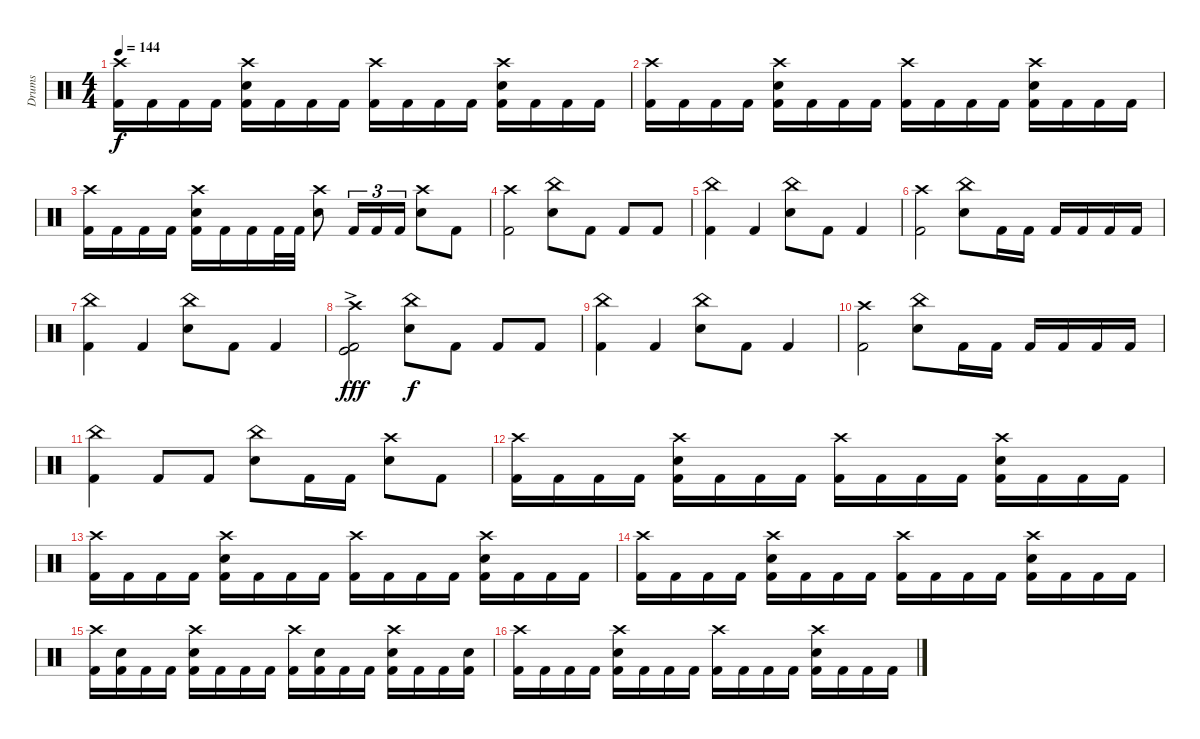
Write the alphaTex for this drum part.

\track ("Drums" "Drums") {instrument percussion}
\staff {score}
\articulation defaults
\ts (4 4)
\tempo 144
\clef neutral
\ks c
("Crash high (hit)" "Kick (hit) 2").16{dy f} "Kick (hit) 2".16 "Kick (hit) 2".16 "Kick (hit) 2".16 ("Crash high (hit)" "Snare (hit) 2" "Kick (hit) 2").16 "Kick (hit) 2".16 "Kick (hit) 2".16 "Kick (hit) 2".16 ("Crash high (hit)" "Kick (hit) 2").16 "Kick (hit) 2".16 "Kick (hit) 2".16 "Kick (hit) 2".16 ("Crash high (hit)" "Snare (hit) 2" "Kick (hit) 2").16 "Kick (hit) 2".16 "Kick (hit) 2".16 "Kick (hit) 2".16 |
("Crash high (hit)" "Kick (hit) 2").16 "Kick (hit) 2".16 "Kick (hit) 2".16 "Kick (hit) 2".16 ("Crash high (hit)" "Snare (hit) 2" "Kick (hit) 2").16 "Kick (hit) 2".16 "Kick (hit) 2".16 "Kick (hit) 2".16 ("Crash high (hit)" "Kick (hit) 2").16 "Kick (hit) 2".16 "Kick (hit) 2".16 "Kick (hit) 2".16 ("Crash high (hit)" "Snare (hit) 2" "Kick (hit) 2").16 "Kick (hit) 2".16 "Kick (hit) 2".16 "Kick (hit) 2".16 |
("Crash high (hit)" "Kick (hit) 2").16 "Kick (hit) 2".16 "Kick (hit) 2".16 "Kick (hit) 2".16 ("Crash high (hit)" "Snare (hit) 2" "Kick (hit) 2").16 "Kick (hit) 2".16 "Kick (hit) 2".16 "Kick (hit) 2".32 "Kick (hit) 2".32 ("Crash high (hit)" "Snare (hit) 2").8 "Kick (hit) 2".16{tu (3 2)} "Kick (hit) 2".16{tu (3 2)} "Kick (hit) 2".16{tu (3 2)} ("Crash high (hit)" "Snare (hit) 2").8 "Kick (hit) 2".8 |
("Crash high (hit)" "Kick (hit) 2").2 ("China (hit)" "Snare (hit) 2").8 "Kick (hit) 2".8 "Kick (hit) 2".8 "Kick (hit) 2".8 |
("Kick (hit) 2" "China (hit)").4 "Kick (hit) 2".4 ("China (hit)" "Snare (hit) 2").8 "Kick (hit) 2".8 "Kick (hit) 2".4 |
("Crash high (hit)" "Kick (hit) 2").2 ("China (hit)" "Snare (hit) 2").8 "Kick (hit) 2".16 "Kick (hit) 2".16 "Kick (hit) 2".16 "Kick (hit) 2".16 "Kick (hit) 2".16 "Kick (hit) 2".16 |
("Kick (hit) 2" "China (hit)").4 "Kick (hit) 2".4 ("China (hit)" "Snare (hit) 2").8 "Kick (hit) 2".8 "Kick (hit) 2".4 |
("Kick (hit)"{ac} "Crash high (hit)" "Kick (hit) 2").2{dy fff} ("China (hit)" "Snare (hit) 2").8{dy f} "Kick (hit) 2".8 "Kick (hit) 2".8 "Kick (hit) 2".8 |
("Kick (hit) 2" "China (hit)").4 "Kick (hit) 2".4 ("China (hit)" "Snare (hit) 2").8 "Kick (hit) 2".8 "Kick (hit) 2".4 |
("Crash high (hit)" "Kick (hit) 2").2 ("China (hit)" "Snare (hit) 2").8 "Kick (hit) 2".16 "Kick (hit) 2".16 "Kick (hit) 2".16 "Kick (hit) 2".16 "Kick (hit) 2".16 "Kick (hit) 2".16 |
("Kick (hit) 2" "China (hit)").4 "Kick (hit) 2".8 "Kick (hit) 2".8 ("China (hit)" "Snare (hit) 2").8 "Kick (hit) 2".16 "Kick (hit) 2".16 ("Crash high (hit)" "Snare (hit) 2").8 "Kick (hit) 2".8 |
("Crash high (hit)" "Kick (hit) 2").16 "Kick (hit) 2".16 "Kick (hit) 2".16 "Kick (hit) 2".16 ("Crash high (hit)" "Snare (hit) 2" "Kick (hit) 2").16 "Kick (hit) 2".16 "Kick (hit) 2".16 "Kick (hit) 2".16 ("Crash high (hit)" "Kick (hit) 2").16 "Kick (hit) 2".16 "Kick (hit) 2".16 "Kick (hit) 2".16 ("Crash high (hit)" "Snare (hit) 2" "Kick (hit) 2").16 "Kick (hit) 2".16 "Kick (hit) 2".16 "Kick (hit) 2".16 |
("Crash high (hit)" "Kick (hit) 2").16 "Kick (hit) 2".16 "Kick (hit) 2".16 "Kick (hit) 2".16 ("Crash high (hit)" "Snare (hit) 2" "Kick (hit) 2").16 "Kick (hit) 2".16 "Kick (hit) 2".16 "Kick (hit) 2".16 ("Crash high (hit)" "Kick (hit) 2").16 "Kick (hit) 2".16 "Kick (hit) 2".16 "Kick (hit) 2".16 ("Crash high (hit)" "Snare (hit) 2" "Kick (hit) 2").16 "Kick (hit) 2".16 "Kick (hit) 2".16 "Kick (hit) 2".16 |
("Crash high (hit)" "Kick (hit) 2").16 "Kick (hit) 2".16 "Kick (hit) 2".16 "Kick (hit) 2".16 ("Crash high (hit)" "Snare (hit) 2" "Kick (hit) 2").16 "Kick (hit) 2".16 "Kick (hit) 2".16 "Kick (hit) 2".16 ("Crash high (hit)" "Kick (hit) 2").16 "Kick (hit) 2".16 "Kick (hit) 2".16 "Kick (hit) 2".16 ("Crash high (hit)" "Snare (hit) 2" "Kick (hit) 2").16 "Kick (hit) 2".16 "Kick (hit) 2".16 "Kick (hit) 2".16 |
("Crash high (hit)" "Kick (hit) 2").16 ("Snare (hit) 2" "Kick (hit) 2").16 "Kick (hit) 2".16 "Kick (hit) 2".16 ("Crash high (hit)" "Snare (hit) 2" "Kick (hit) 2").16 "Kick (hit) 2".16 "Kick (hit) 2".16 "Kick (hit) 2".16 ("Crash high (hit)" "Kick (hit) 2").16 ("Snare (hit) 2" "Kick (hit) 2").16 "Kick (hit) 2".16 "Kick (hit) 2".16 ("Crash high (hit)" "Snare (hit) 2" "Kick (hit) 2").16 "Kick (hit) 2".16 "Kick (hit) 2".16 ("Snare (hit) 2" "Kick (hit) 2").16 |
("Crash high (hit)" "Kick (hit) 2").16 "Kick (hit) 2".16 "Kick (hit) 2".16 "Kick (hit) 2".16 ("Crash high (hit)" "Snare (hit) 2" "Kick (hit) 2").16 "Kick (hit) 2".16 "Kick (hit) 2".16 "Kick (hit) 2".16 ("Crash high (hit)" "Kick (hit) 2").16 "Kick (hit) 2".16 "Kick (hit) 2".16 "Kick (hit) 2".16 ("Crash high (hit)" "Snare (hit) 2" "Kick (hit) 2").16 "Kick (hit) 2".16 "Kick (hit) 2".16 "Kick (hit) 2".16
